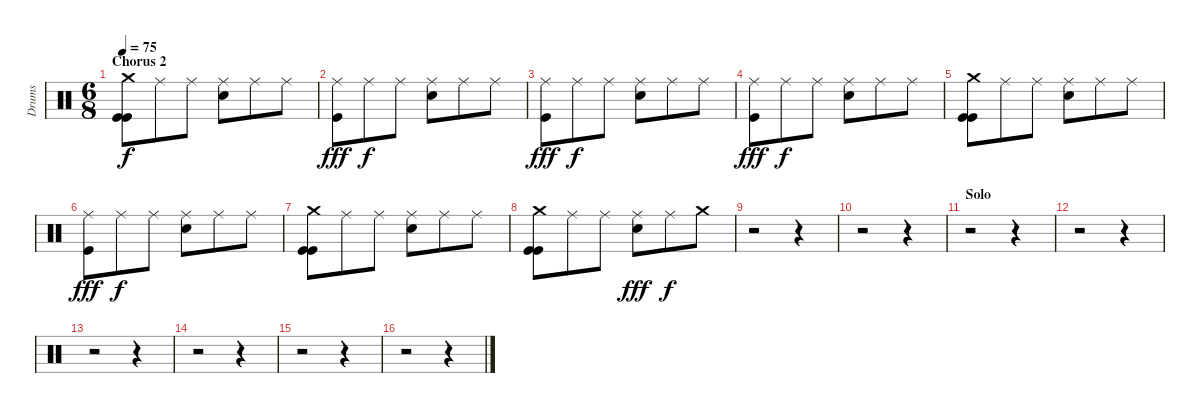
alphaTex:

\track ("Drums" "Drums") {instrument percussion}
\staff {score}
\articulation defaults
\ts (6 8)
\section ("" "Chorus 2")
\tempo 75
\clef neutral
\ks c
("Crash medium (hit)" "Kick (hit)" "Kick (hit)").8{dy f} "Ride (middle)".8 "Ride (middle)".8 ("Ride (middle)" "Snare (hit) 2").8 "Ride (middle)".8 "Ride (middle)".8 |
("Ride (middle)" "Kick (hit)").8{dy fff} "Ride (middle)".8{dy f} "Ride (middle)".8 ("Ride (middle)" "Snare (hit) 2").8 "Ride (middle)".8 "Ride (middle)".8 |
("Ride (middle)" "Kick (hit)").8{dy fff} "Ride (middle)".8{dy f} "Ride (middle)".8 ("Ride (middle)" "Snare (hit) 2").8 "Ride (middle)".8 "Ride (middle)".8 |
("Ride (middle)" "Kick (hit)").8{dy fff} "Ride (middle)".8{dy f} "Ride (middle)".8 ("Ride (middle)" "Snare (hit) 2").8 "Ride (middle)".8 "Ride (middle)".8 |
("Crash medium (hit)" "Kick (hit)" "Kick (hit)").8 "Ride (middle)".8 "Ride (middle)".8 ("Ride (middle)" "Snare (hit) 2").8 "Ride (middle)".8 "Ride (middle)".8 |
("Ride (middle)" "Kick (hit)").8{dy fff} "Ride (middle)".8{dy f} "Ride (middle)".8 ("Ride (middle)" "Snare (hit) 2").8 "Ride (middle)".8 "Ride (middle)".8 |
("Crash medium (hit)" "Kick (hit)" "Kick (hit)").8 "Ride (middle)".8 "Ride (middle)".8 ("Ride (middle)" "Snare (hit) 2").8 "Ride (middle)".8 "Ride (middle)".8 |
("Crash medium (hit)" "Kick (hit)" "Kick (hit)").8 "Ride (middle)".8 "Ride (middle)".8 ("Ride (middle)" "Snare (hit) 2").8{dy fff} "Ride (middle)".8{dy f} "Crash medium (hit)".8 |
r.2 r.4 |
r.2 r.4 |
\section ("" "Solo")
r.2 r.4 |
r.2 r.4 |
r.2 r.4 |
r.2 r.4 |
r.2 r.4 |
r.2 r.4
